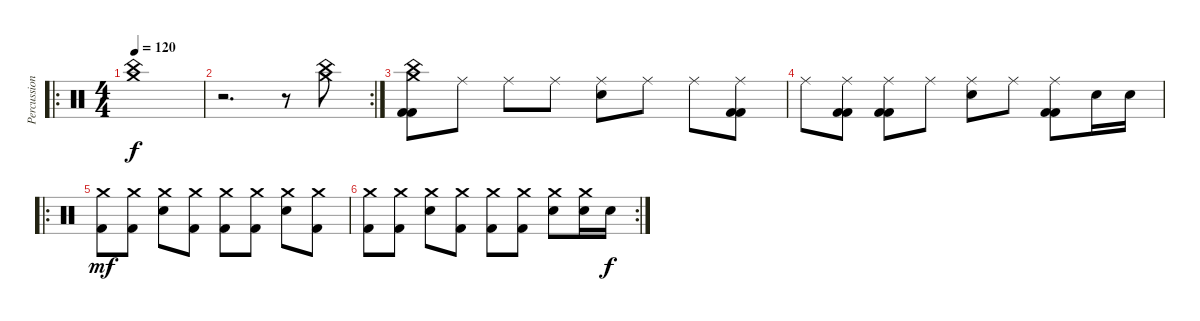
\track ("Percussions" "Percussion") {instrument percussion}
\staff {score}
\articulation defaults
\ro
\ts (4 4)
\tempo 120
\clef neutral
\ks c
("Crash medium (hit)" "China (hit)").1{dy f} |
\rc 2
r.2{d} r.8 ("China (hit)" "Crash medium (hit)").8 |
("Crash medium (hit)" "China (hit)" "Kick (hit) 2" "Kick (hit) 2").8 "Ride (middle)".8 "Ride (middle)".8 "Ride (middle)".8 ("Ride (middle)" "Electric Snare (hit)").8 "Ride (middle)".8 "Ride (middle)".8 ("Ride (middle)" "Kick (hit) 2" "Kick (hit) 2").8 |
"Ride (middle)".8 ("Ride (middle)" "Kick (hit) 2" "Kick (hit) 2").8 ("Ride (middle)" "Kick (hit) 2" "Kick (hit) 2").8 "Ride (middle)".8 ("Ride (middle)" "Electric Snare (hit)").8 "Ride (middle)".8 ("Ride (middle)" "Kick (hit) 2" "Kick (hit) 2").8 "Electric Snare (hit)".16 "Electric Snare (hit)".16 |
\ro
("Crash medium (hit)" "Kick (hit) 2").8{dy mf} ("Crash medium (hit)" "Kick (hit) 2").8 ("Crash medium (hit)" "Electric Snare (hit)").8 ("Crash medium (hit)" "Kick (hit) 2").8 ("Crash medium (hit)" "Kick (hit) 2").8 ("Crash medium (hit)" "Kick (hit) 2").8 ("Crash medium (hit)" "Electric Snare (hit)").8 ("Crash medium (hit)" "Kick (hit) 2").8 |
\rc 2
("Crash medium (hit)" "Kick (hit) 2").8 ("Crash medium (hit)" "Kick (hit) 2").8 ("Crash medium (hit)" "Electric Snare (hit)").8 ("Crash medium (hit)" "Kick (hit) 2").8 ("Crash medium (hit)" "Kick (hit) 2").8 ("Crash medium (hit)" "Kick (hit) 2").8 ("Crash medium (hit)" "Electric Snare (hit)").8 ("Crash medium (hit)" "Electric Snare (hit)").16 "Electric Snare (hit)".16{dy f}
